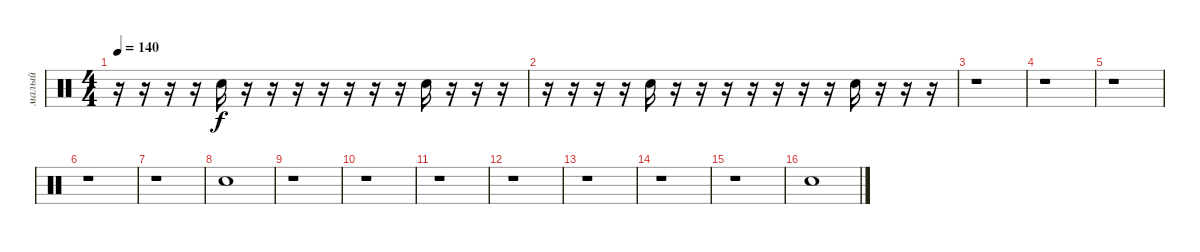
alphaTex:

\track ("малый" "малый") {mute instrument percussion}
\staff {score}
\articulation defaults
\ts (4 4)
\tempo 140
\clef neutral
\ks c
r.16{dy f} r.16 r.16 r.16 "Electric Snare (hit)".16 r.16 r.16 r.16 r.16 r.16 r.16 r.16 "Electric Snare (hit)".16 r.16 r.16 r.16 |
r.16 r.16 r.16 r.16 "Electric Snare (hit)".16 r.16 r.16 r.16 r.16 r.16 r.16 r.16 "Electric Snare (hit)".16 r.16 r.16 r.16 |
r.1 |
r.1 |
r.1 |
r.1 |
r.1 |
"Electric Snare (hit)".1 |
r.1 |
r.1 |
r.1 |
r.1 |
r.1 |
r.1 |
r.1 |
"Electric Snare (hit)".1
